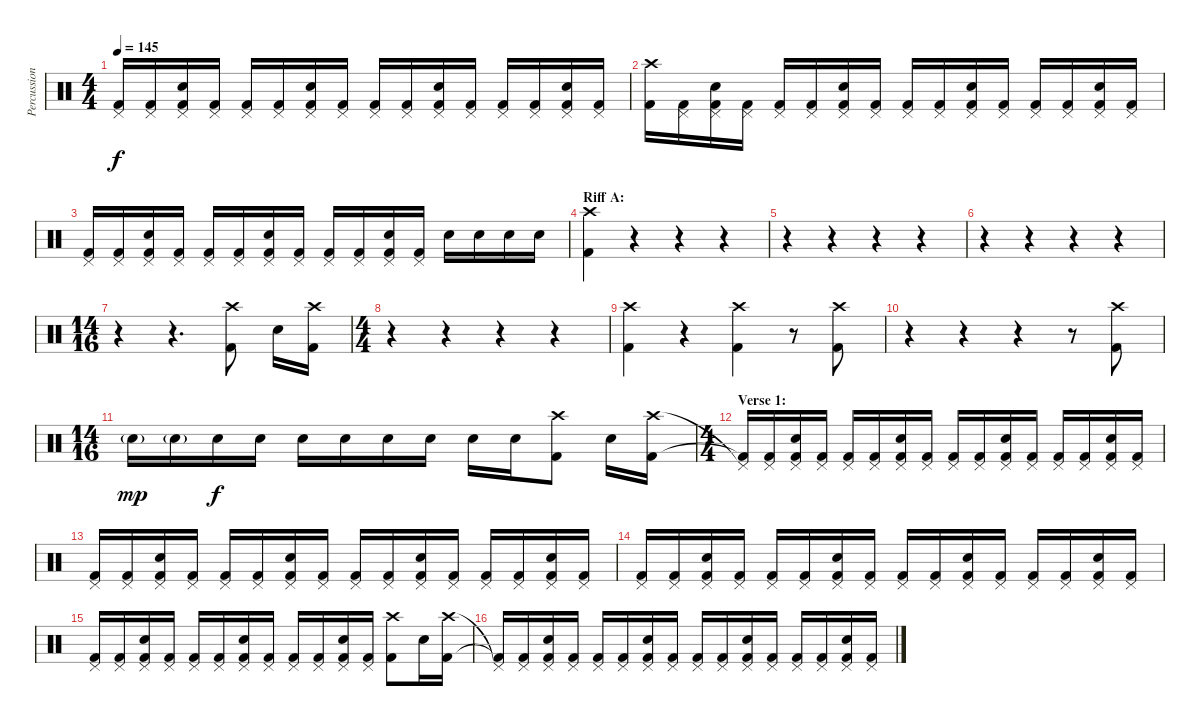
\track ("Percussion" "Percussion") {instrument percussion}
\staff {score}
\articulation defaults
\ts (4 4)
\tempo 145
\clef neutral
\ks c
("Pedal Hi-Hat (hit)" "Kick (hit) 2").16{dy f} ("Pedal Hi-Hat (hit)" "Kick (hit) 2").16 ("Pedal Hi-Hat (hit)" "Snare (hit) 2" "Kick (hit) 2").16 ("Pedal Hi-Hat (hit)" "Kick (hit) 2").16 ("Pedal Hi-Hat (hit)" "Kick (hit) 2").16 ("Pedal Hi-Hat (hit)" "Kick (hit) 2").16 ("Pedal Hi-Hat (hit)" "Snare (hit) 2" "Kick (hit) 2").16 ("Pedal Hi-Hat (hit)" "Kick (hit) 2").16 ("Pedal Hi-Hat (hit)" "Kick (hit) 2").16 ("Pedal Hi-Hat (hit)" "Kick (hit) 2").16 ("Pedal Hi-Hat (hit)" "Snare (hit) 2" "Kick (hit) 2").16 ("Pedal Hi-Hat (hit)" "Kick (hit) 2").16 ("Pedal Hi-Hat (hit)" "Kick (hit) 2").16 ("Pedal Hi-Hat (hit)" "Kick (hit) 2").16 ("Pedal Hi-Hat (hit)" "Snare (hit) 2" "Kick (hit) 2").16 ("Pedal Hi-Hat (hit)" "Kick (hit) 2").16 |
("Crash high (hit)" "Kick (hit) 2").16 ("Pedal Hi-Hat (hit)" "Kick (hit) 2").16 ("Pedal Hi-Hat (hit)" "Snare (hit) 2" "Kick (hit) 2").16 ("Pedal Hi-Hat (hit)" "Kick (hit) 2").16 ("Pedal Hi-Hat (hit)" "Kick (hit) 2").16 ("Pedal Hi-Hat (hit)" "Kick (hit) 2").16 ("Pedal Hi-Hat (hit)" "Snare (hit) 2" "Kick (hit) 2").16 ("Pedal Hi-Hat (hit)" "Kick (hit) 2").16 ("Pedal Hi-Hat (hit)" "Kick (hit) 2").16 ("Pedal Hi-Hat (hit)" "Kick (hit) 2").16 ("Pedal Hi-Hat (hit)" "Snare (hit) 2" "Kick (hit) 2").16 ("Pedal Hi-Hat (hit)" "Kick (hit) 2").16 ("Pedal Hi-Hat (hit)" "Kick (hit) 2").16 ("Pedal Hi-Hat (hit)" "Kick (hit) 2").16 ("Pedal Hi-Hat (hit)" "Snare (hit) 2" "Kick (hit) 2").16 ("Pedal Hi-Hat (hit)" "Kick (hit) 2").16 |
("Pedal Hi-Hat (hit)" "Kick (hit) 2").16 ("Pedal Hi-Hat (hit)" "Kick (hit) 2").16 ("Pedal Hi-Hat (hit)" "Snare (hit) 2" "Kick (hit) 2").16 ("Pedal Hi-Hat (hit)" "Kick (hit) 2").16 ("Pedal Hi-Hat (hit)" "Kick (hit) 2").16 ("Pedal Hi-Hat (hit)" "Kick (hit) 2").16 ("Pedal Hi-Hat (hit)" "Snare (hit) 2" "Kick (hit) 2").16 ("Pedal Hi-Hat (hit)" "Kick (hit) 2").16 ("Pedal Hi-Hat (hit)" "Kick (hit) 2").16 ("Pedal Hi-Hat (hit)" "Kick (hit) 2").16 ("Pedal Hi-Hat (hit)" "Snare (hit) 2" "Kick (hit) 2").16 ("Pedal Hi-Hat (hit)" "Kick (hit) 2").16 "Snare (hit) 2".16 "Snare (hit) 2".16 "Snare (hit) 2".16 "Snare (hit) 2".16 |
\section ("" "Riff A:")
("Crash high (hit)" "Kick (hit) 2").4 r.4 r.4 r.4 |
r.4 r.4 r.4 r.4 |
r.4 r.4 r.4 r.4 |
\ts (14 16)
r.4 r.4{d} ("Crash high (hit)" "Kick (hit) 2").8 "Snare (hit) 2".16 ("Crash high (hit)" "Kick (hit) 2").16 |
\ts (4 4)
r.4 r.4 r.4 r.4 |
("Crash high (hit)" "Kick (hit) 2").4 r.4 ("Crash high (hit)" "Kick (hit) 2").4 r.8 ("Crash high (hit)" "Kick (hit) 2").8 |
r.4 r.4 r.4 r.8 ("Crash high (hit)" "Kick (hit) 2").8 |
\ts (14 16)
"Snare (hit) 2"{g}.16{dy mp} "Snare (hit) 2"{g}.16 "Snare (hit) 2".16{dy f} "Snare (hit) 2".16 "Snare (hit) 2".16 "Snare (hit) 2".16 "Snare (hit) 2".16 "Snare (hit) 2".16 "Snare (hit) 2".16 "Snare (hit) 2".16 ("Crash high (hit)" "Kick (hit) 2").8 "Snare (hit) 2".16 ("Crash high (hit)" "Kick (hit) 2").16 |
\ts (4 4)
\section ("" "Verse 1:")
("Pedal Hi-Hat (hit)"{t} "Kick (hit) 2"{t}).16 ("Pedal Hi-Hat (hit)" "Kick (hit) 2").16 ("Pedal Hi-Hat (hit)" "Snare (hit) 2" "Kick (hit) 2").16 ("Pedal Hi-Hat (hit)" "Kick (hit) 2").16 ("Pedal Hi-Hat (hit)" "Kick (hit) 2").16 ("Pedal Hi-Hat (hit)" "Kick (hit) 2").16 ("Pedal Hi-Hat (hit)" "Snare (hit) 2" "Kick (hit) 2").16 ("Pedal Hi-Hat (hit)" "Kick (hit) 2").16 ("Pedal Hi-Hat (hit)" "Kick (hit) 2").16 ("Pedal Hi-Hat (hit)" "Kick (hit) 2").16 ("Pedal Hi-Hat (hit)" "Snare (hit) 2" "Kick (hit) 2").16 ("Pedal Hi-Hat (hit)" "Kick (hit) 2").16 ("Pedal Hi-Hat (hit)" "Kick (hit) 2").16 ("Pedal Hi-Hat (hit)" "Kick (hit) 2").16 ("Pedal Hi-Hat (hit)" "Snare (hit) 2" "Kick (hit) 2").16 ("Pedal Hi-Hat (hit)" "Kick (hit) 2").16 |
("Pedal Hi-Hat (hit)" "Kick (hit) 2").16 ("Pedal Hi-Hat (hit)" "Kick (hit) 2").16 ("Pedal Hi-Hat (hit)" "Snare (hit) 2" "Kick (hit) 2").16 ("Pedal Hi-Hat (hit)" "Kick (hit) 2").16 ("Pedal Hi-Hat (hit)" "Kick (hit) 2").16 ("Pedal Hi-Hat (hit)" "Kick (hit) 2").16 ("Pedal Hi-Hat (hit)" "Snare (hit) 2" "Kick (hit) 2").16 ("Pedal Hi-Hat (hit)" "Kick (hit) 2").16 ("Pedal Hi-Hat (hit)" "Kick (hit) 2").16 ("Pedal Hi-Hat (hit)" "Kick (hit) 2").16 ("Pedal Hi-Hat (hit)" "Snare (hit) 2" "Kick (hit) 2").16 ("Pedal Hi-Hat (hit)" "Kick (hit) 2").16 ("Pedal Hi-Hat (hit)" "Kick (hit) 2").16 ("Pedal Hi-Hat (hit)" "Kick (hit) 2").16 ("Pedal Hi-Hat (hit)" "Snare (hit) 2" "Kick (hit) 2").16 ("Pedal Hi-Hat (hit)" "Kick (hit) 2").16 |
("Pedal Hi-Hat (hit)" "Kick (hit) 2").16 ("Pedal Hi-Hat (hit)" "Kick (hit) 2").16 ("Pedal Hi-Hat (hit)" "Snare (hit) 2" "Kick (hit) 2").16 ("Pedal Hi-Hat (hit)" "Kick (hit) 2").16 ("Pedal Hi-Hat (hit)" "Kick (hit) 2").16 ("Pedal Hi-Hat (hit)" "Kick (hit) 2").16 ("Pedal Hi-Hat (hit)" "Snare (hit) 2" "Kick (hit) 2").16 ("Pedal Hi-Hat (hit)" "Kick (hit) 2").16 ("Pedal Hi-Hat (hit)" "Kick (hit) 2").16 ("Pedal Hi-Hat (hit)" "Kick (hit) 2").16 ("Pedal Hi-Hat (hit)" "Snare (hit) 2" "Kick (hit) 2").16 ("Pedal Hi-Hat (hit)" "Kick (hit) 2").16 ("Pedal Hi-Hat (hit)" "Kick (hit) 2").16 ("Pedal Hi-Hat (hit)" "Kick (hit) 2").16 ("Pedal Hi-Hat (hit)" "Snare (hit) 2" "Kick (hit) 2").16 ("Pedal Hi-Hat (hit)" "Kick (hit) 2").16 |
("Pedal Hi-Hat (hit)" "Kick (hit) 2").16 ("Pedal Hi-Hat (hit)" "Kick (hit) 2").16 ("Pedal Hi-Hat (hit)" "Snare (hit) 2" "Kick (hit) 2").16 ("Pedal Hi-Hat (hit)" "Kick (hit) 2").16 ("Pedal Hi-Hat (hit)" "Kick (hit) 2").16 ("Pedal Hi-Hat (hit)" "Kick (hit) 2").16 ("Pedal Hi-Hat (hit)" "Snare (hit) 2" "Kick (hit) 2").16 ("Pedal Hi-Hat (hit)" "Kick (hit) 2").16 ("Pedal Hi-Hat (hit)" "Kick (hit) 2").16 ("Pedal Hi-Hat (hit)" "Kick (hit) 2").16 ("Pedal Hi-Hat (hit)" "Snare (hit) 2" "Kick (hit) 2").16 ("Pedal Hi-Hat (hit)" "Kick (hit) 2").16 ("Crash high (hit)" "Kick (hit) 2").8 "Snare (hit) 2".16 ("Crash high (hit)" "Kick (hit) 2").16 |
("Pedal Hi-Hat (hit)"{t} "Kick (hit) 2"{t}).16 ("Pedal Hi-Hat (hit)" "Kick (hit) 2").16 ("Pedal Hi-Hat (hit)" "Snare (hit) 2" "Kick (hit) 2").16 ("Pedal Hi-Hat (hit)" "Kick (hit) 2").16 ("Pedal Hi-Hat (hit)" "Kick (hit) 2").16 ("Pedal Hi-Hat (hit)" "Kick (hit) 2").16 ("Pedal Hi-Hat (hit)" "Snare (hit) 2" "Kick (hit) 2").16 ("Pedal Hi-Hat (hit)" "Kick (hit) 2").16 ("Pedal Hi-Hat (hit)" "Kick (hit) 2").16 ("Pedal Hi-Hat (hit)" "Kick (hit) 2").16 ("Pedal Hi-Hat (hit)" "Snare (hit) 2" "Kick (hit) 2").16 ("Pedal Hi-Hat (hit)" "Kick (hit) 2").16 ("Pedal Hi-Hat (hit)" "Kick (hit) 2").16 ("Pedal Hi-Hat (hit)" "Kick (hit) 2").16 ("Pedal Hi-Hat (hit)" "Snare (hit) 2" "Kick (hit) 2").16 ("Pedal Hi-Hat (hit)" "Kick (hit) 2").16
